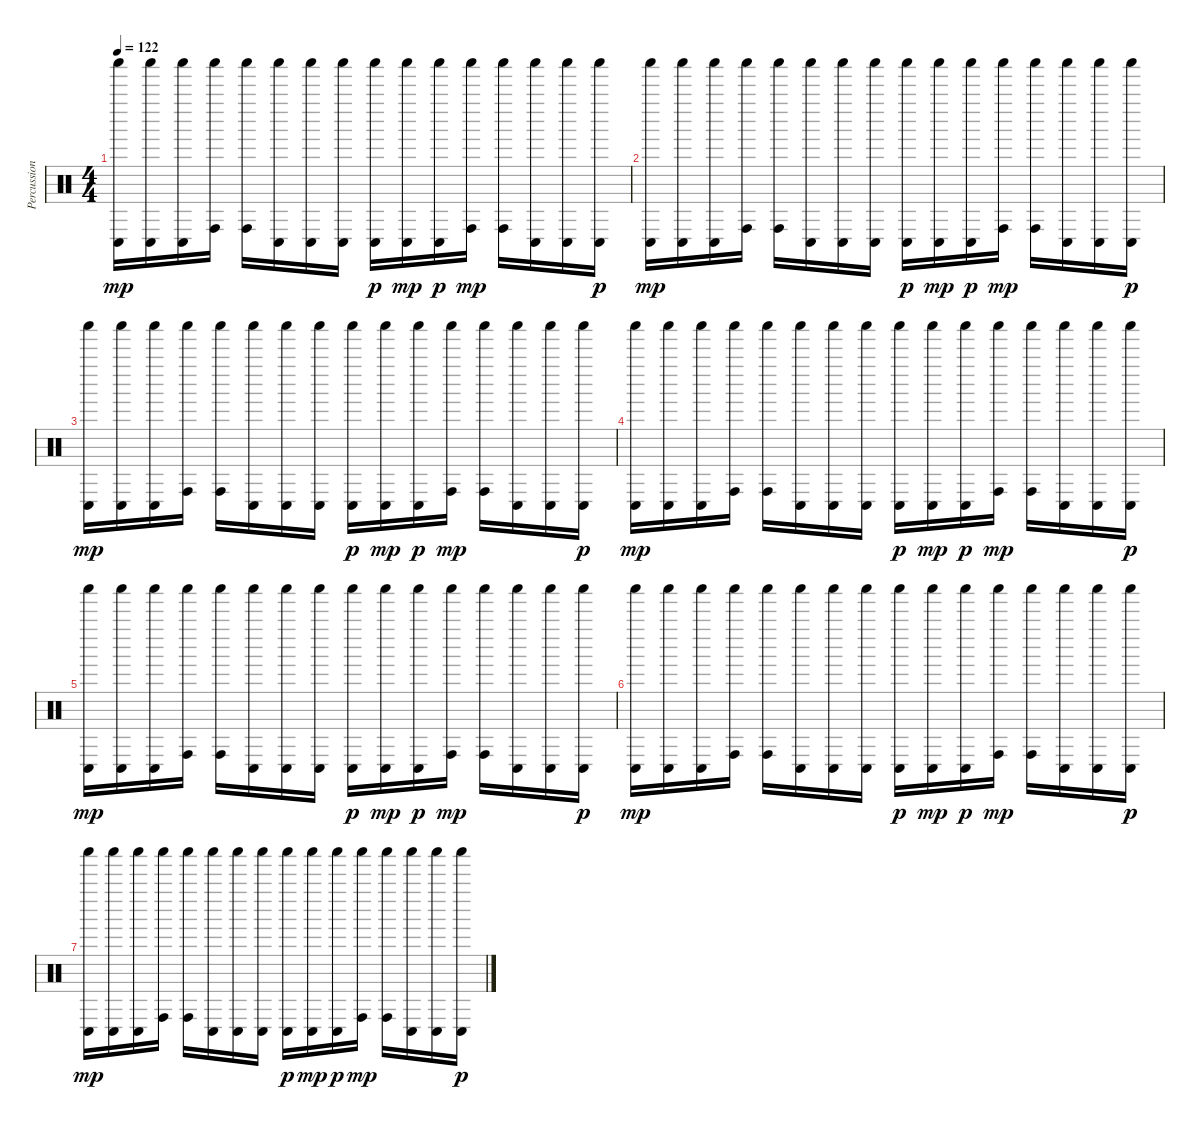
\track ("Percussion" "Percussion") {instrument percussion}
\staff {score}
\articulation defaults
\ts (4 4)
\tempo 122
\clef neutral
\ks c
("Shaker (hit)" "Conga low (hit)").16{dy mp} ("Shaker (hit)" "Conga low (hit)").16 ("Shaker (hit)" "Conga low (hit)").16 ("Shaker (hit)" "Conga high (hit)").16 ("Shaker (hit)" "Conga high (hit)").16 ("Shaker (hit)" "Conga low (hit)").16 ("Shaker (hit)" "Conga low (hit)").16 ("Shaker (hit)" "Conga low (hit)").16 ("Shaker (hit)" "Conga low (hit)").16{dy p} ("Shaker (hit)" "Conga low (hit)").16{dy mp} ("Shaker (hit)" "Conga low (hit)").16{dy p} ("Shaker (hit)" "Conga high (hit)").16{dy mp} ("Shaker (hit)" "Conga high (hit)").16 ("Shaker (hit)" "Conga low (hit)").16 ("Shaker (hit)" "Conga low (hit)").16 ("Shaker (hit)" "Conga low (hit)").16{dy p} |
("Shaker (hit)" "Conga low (hit)").16{dy mp} ("Shaker (hit)" "Conga low (hit)").16 ("Shaker (hit)" "Conga low (hit)").16 ("Shaker (hit)" "Conga high (hit)").16 ("Shaker (hit)" "Conga high (hit)").16 ("Shaker (hit)" "Conga low (hit)").16 ("Shaker (hit)" "Conga low (hit)").16 ("Shaker (hit)" "Conga low (hit)").16 ("Shaker (hit)" "Conga low (hit)").16{dy p} ("Shaker (hit)" "Conga low (hit)").16{dy mp} ("Shaker (hit)" "Conga low (hit)").16{dy p} ("Shaker (hit)" "Conga high (hit)").16{dy mp} ("Shaker (hit)" "Conga high (hit)").16 ("Shaker (hit)" "Conga low (hit)").16 ("Shaker (hit)" "Conga low (hit)").16 ("Shaker (hit)" "Conga low (hit)").16{dy p} |
("Shaker (hit)" "Conga low (hit)").16{dy mp} ("Shaker (hit)" "Conga low (hit)").16 ("Shaker (hit)" "Conga low (hit)").16 ("Shaker (hit)" "Conga high (hit)").16 ("Shaker (hit)" "Conga high (hit)").16 ("Shaker (hit)" "Conga low (hit)").16 ("Shaker (hit)" "Conga low (hit)").16 ("Shaker (hit)" "Conga low (hit)").16 ("Shaker (hit)" "Conga low (hit)").16{dy p} ("Shaker (hit)" "Conga low (hit)").16{dy mp} ("Shaker (hit)" "Conga low (hit)").16{dy p} ("Shaker (hit)" "Conga high (hit)").16{dy mp} ("Shaker (hit)" "Conga high (hit)").16 ("Shaker (hit)" "Conga low (hit)").16 ("Shaker (hit)" "Conga low (hit)").16 ("Shaker (hit)" "Conga low (hit)").16{dy p} |
("Shaker (hit)" "Conga low (hit)").16{dy mp} ("Shaker (hit)" "Conga low (hit)").16 ("Shaker (hit)" "Conga low (hit)").16 ("Shaker (hit)" "Conga high (hit)").16 ("Shaker (hit)" "Conga high (hit)").16 ("Shaker (hit)" "Conga low (hit)").16 ("Shaker (hit)" "Conga low (hit)").16 ("Shaker (hit)" "Conga low (hit)").16 ("Shaker (hit)" "Conga low (hit)").16{dy p} ("Shaker (hit)" "Conga low (hit)").16{dy mp} ("Shaker (hit)" "Conga low (hit)").16{dy p} ("Shaker (hit)" "Conga high (hit)").16{dy mp} ("Shaker (hit)" "Conga high (hit)").16 ("Shaker (hit)" "Conga low (hit)").16 ("Shaker (hit)" "Conga low (hit)").16 ("Shaker (hit)" "Conga low (hit)").16{dy p} |
("Shaker (hit)" "Conga low (hit)").16{dy mp} ("Shaker (hit)" "Conga low (hit)").16 ("Shaker (hit)" "Conga low (hit)").16 ("Shaker (hit)" "Conga high (hit)").16 ("Shaker (hit)" "Conga high (hit)").16 ("Shaker (hit)" "Conga low (hit)").16 ("Shaker (hit)" "Conga low (hit)").16 ("Shaker (hit)" "Conga low (hit)").16 ("Shaker (hit)" "Conga low (hit)").16{dy p} ("Shaker (hit)" "Conga low (hit)").16{dy mp} ("Shaker (hit)" "Conga low (hit)").16{dy p} ("Shaker (hit)" "Conga high (hit)").16{dy mp} ("Shaker (hit)" "Conga high (hit)").16 ("Shaker (hit)" "Conga low (hit)").16 ("Shaker (hit)" "Conga low (hit)").16 ("Shaker (hit)" "Conga low (hit)").16{dy p} |
("Shaker (hit)" "Conga low (hit)").16{dy mp} ("Shaker (hit)" "Conga low (hit)").16 ("Shaker (hit)" "Conga low (hit)").16 ("Shaker (hit)" "Conga high (hit)").16 ("Shaker (hit)" "Conga high (hit)").16 ("Shaker (hit)" "Conga low (hit)").16 ("Shaker (hit)" "Conga low (hit)").16 ("Shaker (hit)" "Conga low (hit)").16 ("Shaker (hit)" "Conga low (hit)").16{dy p} ("Shaker (hit)" "Conga low (hit)").16{dy mp} ("Shaker (hit)" "Conga low (hit)").16{dy p} ("Shaker (hit)" "Conga high (hit)").16{dy mp} ("Shaker (hit)" "Conga high (hit)").16 ("Shaker (hit)" "Conga low (hit)").16 ("Shaker (hit)" "Conga low (hit)").16 ("Shaker (hit)" "Conga low (hit)").16{dy p} |
("Shaker (hit)" "Conga low (hit)").16{dy mp} ("Shaker (hit)" "Conga low (hit)").16 ("Shaker (hit)" "Conga low (hit)").16 ("Shaker (hit)" "Conga high (hit)").16 ("Shaker (hit)" "Conga high (hit)").16 ("Shaker (hit)" "Conga low (hit)").16 ("Shaker (hit)" "Conga low (hit)").16 ("Shaker (hit)" "Conga low (hit)").16 ("Shaker (hit)" "Conga low (hit)").16{dy p} ("Shaker (hit)" "Conga low (hit)").16{dy mp} ("Shaker (hit)" "Conga low (hit)").16{dy p} ("Shaker (hit)" "Conga high (hit)").16{dy mp} ("Shaker (hit)" "Conga high (hit)").16 ("Shaker (hit)" "Conga low (hit)").16 ("Shaker (hit)" "Conga low (hit)").16 ("Shaker (hit)" "Conga low (hit)").16{dy p}
